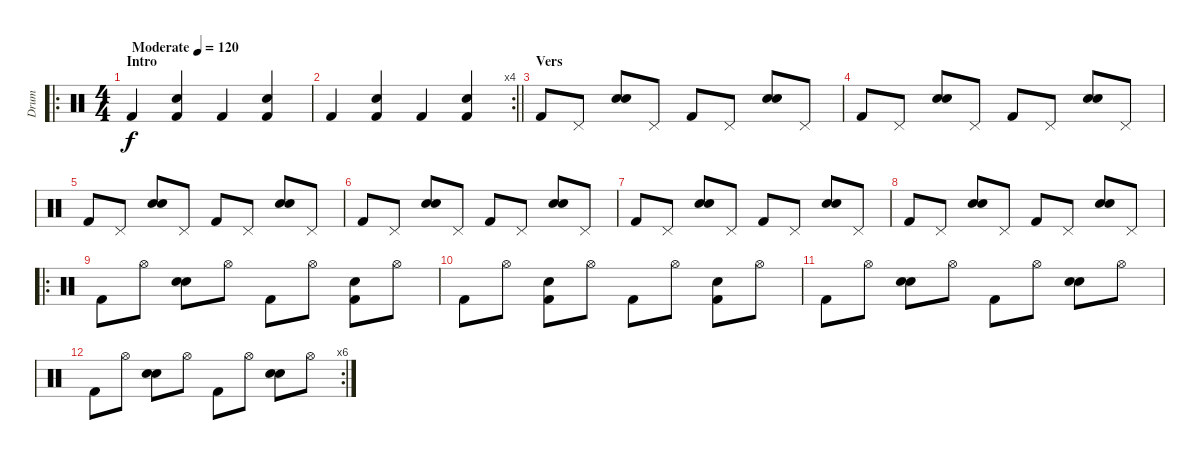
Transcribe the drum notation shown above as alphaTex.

\track ("Drum" "Drum") {instrument percussion}
\staff {score}
\articulation defaults
\ro
\ts (4 4)
\section ("" "Intro")
\tempo (120 "Moderate")
\clef neutral
\ks c "Kick (hit) 2".4{dy f}
("Kick (hit) 2" "Hand Clap (hit)").4 "Kick (hit) 2".4 ("Kick (hit) 2" "Hand Clap (hit)").4 |
\rc 4
\barLineRight lightlight "Kick (hit) 2".4
("Kick (hit) 2" "Hand Clap (hit)").4 "Kick (hit) 2".4 ("Kick (hit) 2" "Hand Clap (hit)").4 |
\section ("" "Vers")
"Kick (hit) 2".8 "Pedal Hi-Hat (hit)".8 ("Electric Snare (hit)" "Hand Clap (hit)").8 "Pedal Hi-Hat (hit)".8 "Kick (hit) 2".8 "Pedal Hi-Hat (hit)".8 ("Electric Snare (hit)" "Hand Clap (hit)").8 "Pedal Hi-Hat (hit)".8 |
"Kick (hit) 2".8 "Pedal Hi-Hat (hit)".8 ("Electric Snare (hit)" "Hand Clap (hit)").8 "Pedal Hi-Hat (hit)".8 "Kick (hit) 2".8 "Pedal Hi-Hat (hit)".8 ("Electric Snare (hit)" "Hand Clap (hit)").8 "Pedal Hi-Hat (hit)".8 |
"Kick (hit) 2".8 "Pedal Hi-Hat (hit)".8 ("Electric Snare (hit)" "Hand Clap (hit)").8 "Pedal Hi-Hat (hit)".8 "Kick (hit) 2".8 "Pedal Hi-Hat (hit)".8 ("Electric Snare (hit)" "Hand Clap (hit)").8 "Pedal Hi-Hat (hit)".8 |
"Kick (hit) 2".8 "Pedal Hi-Hat (hit)".8 ("Electric Snare (hit)" "Hand Clap (hit)").8 "Pedal Hi-Hat (hit)".8 "Kick (hit) 2".8 "Pedal Hi-Hat (hit)".8 ("Electric Snare (hit)" "Hand Clap (hit)").8 "Pedal Hi-Hat (hit)".8 |
"Kick (hit) 2".8 "Pedal Hi-Hat (hit)".8 ("Electric Snare (hit)" "Hand Clap (hit)").8 "Pedal Hi-Hat (hit)".8 "Kick (hit) 2".8 "Pedal Hi-Hat (hit)".8 ("Electric Snare (hit)" "Hand Clap (hit)").8 "Pedal Hi-Hat (hit)".8 |
"Kick (hit) 2".8 "Pedal Hi-Hat (hit)".8 ("Electric Snare (hit)" "Hand Clap (hit)").8 "Pedal Hi-Hat (hit)".8 "Kick (hit) 2".8 "Pedal Hi-Hat (hit)".8 ("Electric Snare (hit)" "Hand Clap (hit)").8 "Pedal Hi-Hat (hit)".8 |
\ro "Kick (hit) 2".8 "Hi-Hat (open)".8
("Electric Snare (hit)" "Hand Clap (hit)").8 "Hi-Hat (open)".8 "Kick (hit) 2".8 "Hi-Hat (open)".8 ("Electric Snare (hit)" "Kick (hit) 2").8 "Hi-Hat (open)".8 |
"Kick (hit) 2".8 "Hi-Hat (open)".8 ("Electric Snare (hit)" "Kick (hit) 2").8 "Hi-Hat (open)".8 "Kick (hit) 2".8 "Hi-Hat (open)".8 ("Electric Snare (hit)" "Kick (hit) 2").8 "Hi-Hat (open)".8 |
"Kick (hit) 2".8 "Hi-Hat (open)".8 ("Electric Snare (hit)" "Hand Clap (hit)").8 "Hi-Hat (open)".8 "Kick (hit) 2".8 "Hi-Hat (open)".8 ("Electric Snare (hit)" "Hand Clap (hit)").8 "Hi-Hat (open)".8 |
\rc 6 "Kick (hit) 2".8 "Hi-Hat (open)".8
("Electric Snare (hit)" "Hand Clap (hit)").8 "Hi-Hat (open)".8 "Kick (hit) 2".8 "Hi-Hat (open)".8 ("Electric Snare (hit)" "Hand Clap (hit)").8 "Hi-Hat (open)".8
